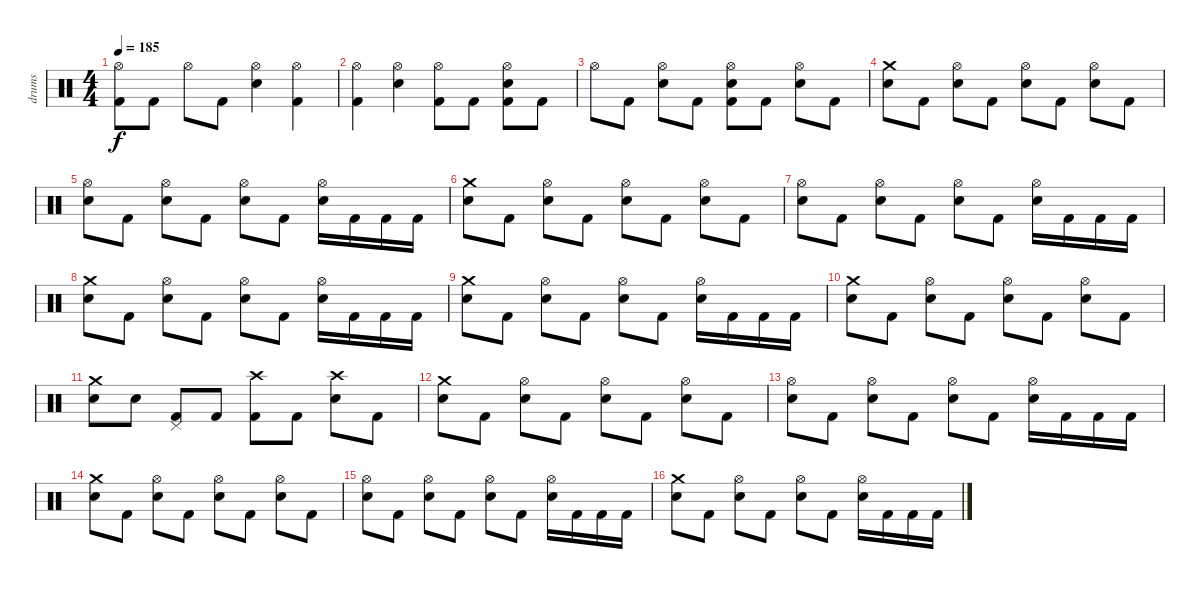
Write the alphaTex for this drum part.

\track ("drums" "drums") {instrument percussion}
\staff {score}
\articulation defaults
\ts (4 4)
\tempo 185
\clef neutral
\ks c
("Hi-Hat (open)" "Kick (hit) 2").8{dy f} "Kick (hit) 2".8 "Hi-Hat (open)".8 "Kick (hit) 2".8 ("Hi-Hat (open)" "Electric Snare (hit)").4 ("Hi-Hat (open)" "Kick (hit) 2").4 |
("Hi-Hat (open)" "Kick (hit) 2").4 ("Hi-Hat (open)" "Electric Snare (hit)").4 ("Hi-Hat (open)" "Kick (hit) 2").8 "Kick (hit) 2".8 ("Hi-Hat (open)" "Electric Snare (hit)" "Kick (hit) 2").8 "Kick (hit) 2".8 |
"Hi-Hat (open)".8 "Kick (hit) 2".8 ("Hi-Hat (open)" "Electric Snare (hit)").8 "Kick (hit) 2".8 ("Hi-Hat (open)" "Electric Snare (hit)" "Kick (hit) 2").8 "Kick (hit) 2".8 ("Hi-Hat (open)" "Electric Snare (hit)").8 "Kick (hit) 2".8 |
("Crash medium (hit)" "Electric Snare (hit)").8 "Kick (hit) 2".8 ("Hi-Hat (open)" "Electric Snare (hit)").8 "Kick (hit) 2".8 ("Hi-Hat (open)" "Electric Snare (hit)").8 "Kick (hit) 2".8 ("Hi-Hat (open)" "Electric Snare (hit)").8 "Kick (hit) 2".8 |
("Hi-Hat (open)" "Electric Snare (hit)").8 "Kick (hit) 2".8 ("Hi-Hat (open)" "Electric Snare (hit)").8 "Kick (hit) 2".8 ("Hi-Hat (open)" "Electric Snare (hit)").8 "Kick (hit) 2".8 ("Hi-Hat (open)" "Electric Snare (hit)").16 "Kick (hit) 2".16 "Kick (hit) 2".16 "Kick (hit) 2".16 |
("Crash medium (hit)" "Electric Snare (hit)").8 "Kick (hit) 2".8 ("Hi-Hat (open)" "Electric Snare (hit)").8 "Kick (hit) 2".8 ("Hi-Hat (open)" "Electric Snare (hit)").8 "Kick (hit) 2".8 ("Hi-Hat (open)" "Electric Snare (hit)").8 "Kick (hit) 2".8 |
("Hi-Hat (open)" "Electric Snare (hit)").8 "Kick (hit) 2".8 ("Hi-Hat (open)" "Electric Snare (hit)").8 "Kick (hit) 2".8 ("Hi-Hat (open)" "Electric Snare (hit)").8 "Kick (hit) 2".8 ("Hi-Hat (open)" "Electric Snare (hit)").16 "Kick (hit) 2".16 "Kick (hit) 2".16 "Kick (hit) 2".16 |
("Crash medium (hit)" "Electric Snare (hit)").8 "Kick (hit) 2".8 ("Hi-Hat (open)" "Electric Snare (hit)").8 "Kick (hit) 2".8 ("Hi-Hat (open)" "Electric Snare (hit)").8 "Kick (hit) 2".8 ("Hi-Hat (open)" "Electric Snare (hit)").16 "Kick (hit) 2".16 "Kick (hit) 2".16 "Kick (hit) 2".16 |
("Crash medium (hit)" "Electric Snare (hit)").8 "Kick (hit) 2".8 ("Hi-Hat (open)" "Electric Snare (hit)").8 "Kick (hit) 2".8 ("Hi-Hat (open)" "Electric Snare (hit)").8 "Kick (hit) 2".8 ("Hi-Hat (open)" "Electric Snare (hit)").16 "Kick (hit) 2".16 "Kick (hit) 2".16 "Kick (hit) 2".16 |
("Crash medium (hit)" "Electric Snare (hit)").8 "Kick (hit) 2".8 ("Hi-Hat (open)" "Electric Snare (hit)").8 "Kick (hit) 2".8 ("Hi-Hat (open)" "Electric Snare (hit)").8 "Kick (hit) 2".8 ("Hi-Hat (open)" "Electric Snare (hit)").8 "Kick (hit) 2".8 |
("Crash medium (hit)" "Electric Snare (hit)").8 "Electric Snare (hit)".8 ("Pedal Hi-Hat (hit)" "Kick (hit) 2").8 "Kick (hit) 2".8 ("Crash high (hit)" "Kick (hit) 2").8 "Kick (hit) 2".8 ("Crash high (hit)" "Electric Snare (hit)").8 "Kick (hit) 2".8 |
("Crash medium (hit)" "Electric Snare (hit)").8 "Kick (hit) 2".8 ("Hi-Hat (open)" "Electric Snare (hit)").8 "Kick (hit) 2".8 ("Hi-Hat (open)" "Electric Snare (hit)").8 "Kick (hit) 2".8 ("Hi-Hat (open)" "Electric Snare (hit)").8 "Kick (hit) 2".8 |
("Hi-Hat (open)" "Electric Snare (hit)").8 "Kick (hit) 2".8 ("Hi-Hat (open)" "Electric Snare (hit)").8 "Kick (hit) 2".8 ("Hi-Hat (open)" "Electric Snare (hit)").8 "Kick (hit) 2".8 ("Hi-Hat (open)" "Electric Snare (hit)").16 "Kick (hit) 2".16 "Kick (hit) 2".16 "Kick (hit) 2".16 |
("Crash medium (hit)" "Electric Snare (hit)").8 "Kick (hit) 2".8 ("Hi-Hat (open)" "Electric Snare (hit)").8 "Kick (hit) 2".8 ("Hi-Hat (open)" "Electric Snare (hit)").8 "Kick (hit) 2".8 ("Hi-Hat (open)" "Electric Snare (hit)").8 "Kick (hit) 2".8 |
("Hi-Hat (open)" "Electric Snare (hit)").8 "Kick (hit) 2".8 ("Hi-Hat (open)" "Electric Snare (hit)").8 "Kick (hit) 2".8 ("Hi-Hat (open)" "Electric Snare (hit)").8 "Kick (hit) 2".8 ("Hi-Hat (open)" "Electric Snare (hit)").16 "Kick (hit) 2".16 "Kick (hit) 2".16 "Kick (hit) 2".16 |
("Crash medium (hit)" "Electric Snare (hit)").8 "Kick (hit) 2".8 ("Hi-Hat (open)" "Electric Snare (hit)").8 "Kick (hit) 2".8 ("Hi-Hat (open)" "Electric Snare (hit)").8 "Kick (hit) 2".8 ("Hi-Hat (open)" "Electric Snare (hit)").16 "Kick (hit) 2".16 "Kick (hit) 2".16 "Kick (hit) 2".16
